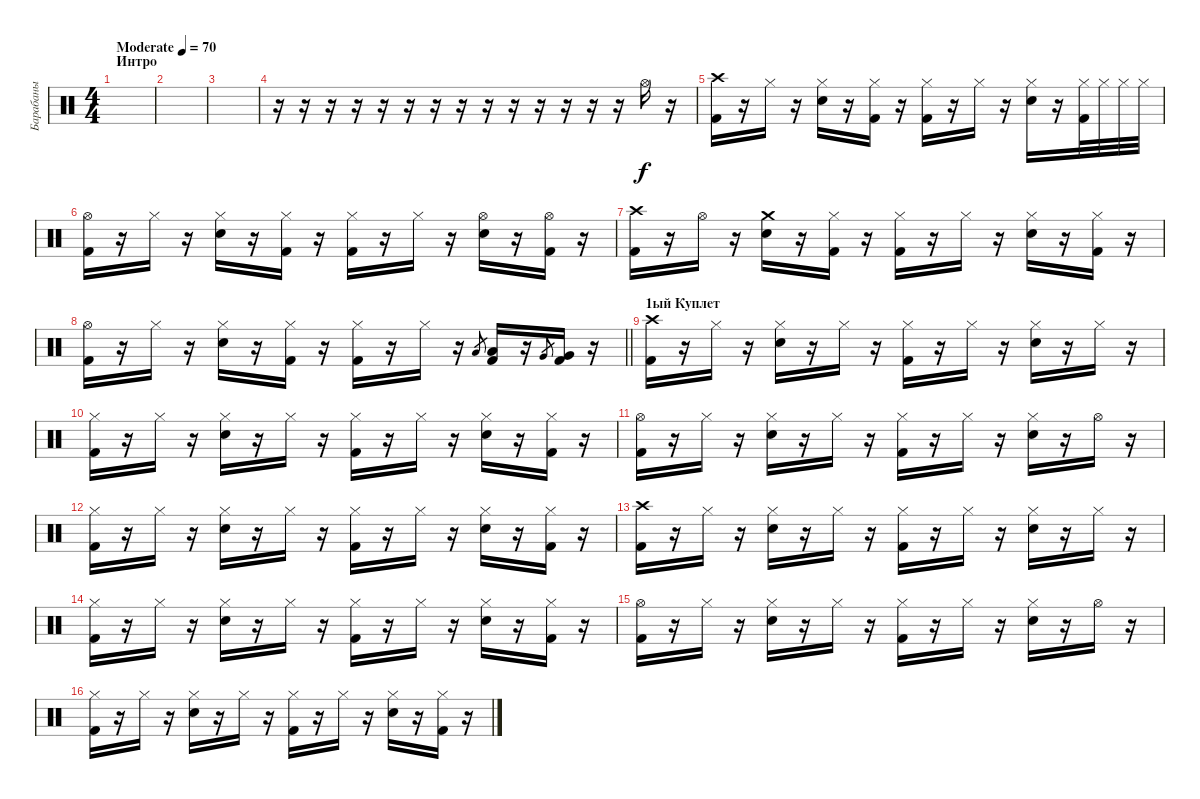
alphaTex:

\track ("Барабаны" "Барабаны") {instrument percussion}
\staff {score}
\articulation defaults
\ts (4 4)
\section ("" "Интро")
\tempo (70 "Moderate")
\clef neutral
\ks c
|
|
|
r.16 r.16 r.16 r.16 r.16 r.16 r.16 r.16 r.16 r.16 r.16 r.16 r.16 r.16 "Hi-Hat (open)".16 r.16 |
("Crash high (hit)" "Kick (hit) 2").16 r.16 "Hi-Hat (closed)".16 r.16 ("Hi-Hat (closed)" "Snare (hit) 2").16 r.16 ("Hi-Hat (closed)" "Kick (hit) 2").16 r.16 ("Hi-Hat (closed)" "Kick (hit) 2").16 r.16 "Hi-Hat (closed)".16 r.16 ("Hi-Hat (closed)" "Snare (hit) 2").16 r.16 ("Hi-Hat (closed)" "Kick (hit) 2").32 "Hi-Hat (closed)".32 "Hi-Hat (closed)".32 "Hi-Hat (closed)".32 |
("Hi-Hat (open)" "Kick (hit) 2").16 r.16 "Hi-Hat (closed)".16 r.16 ("Hi-Hat (closed)" "Snare (hit) 2").16 r.16 ("Hi-Hat (closed)" "Kick (hit) 2").16 r.16 ("Hi-Hat (closed)" "Kick (hit) 2").16 r.16 "Hi-Hat (closed)".16 r.16 ("Hi-Hat (open)" "Snare (hit) 2").16 r.16 ("Hi-Hat (open)" "Kick (hit) 2").16 r.16 |
("Crash high (hit)" "Kick (hit) 2").16 r.16 "Hi-Hat (open)".16 r.16 ("Crash medium (hit)" "Snare (hit) 2").16 r.16 ("Hi-Hat (closed)" "Kick (hit) 2").16 r.16 ("Hi-Hat (closed)" "Kick (hit) 2").16 r.16 "Hi-Hat (closed)".16 r.16 ("Hi-Hat (closed)" "Snare (hit) 2").16 r.16 ("Hi-Hat (closed)" "Kick (hit) 2").16 r.16 |
\barLineRight lightlight
("Hi-Hat (open)" "Kick (hit) 2").16 r.16 "Hi-Hat (closed)".16 r.16 ("Hi-Hat (closed)" "Snare (hit) 2").16 r.16 ("Hi-Hat (closed)" "Kick (hit) 2").16 r.16 ("Hi-Hat (closed)" "Kick (hit) 2").16 r.16 "Hi-Hat (closed)".16 r.16 "Low Tom (hit)".8{gr} ("Low Tom (hit)" "Kick (hit) 2").16 r.16 "Very Low Tom (hit)".8{gr} ("Very Low Tom (hit)" "Kick (hit) 2").16 r.16 |
\section ("" "1ый Куплет")
("Crash high (hit)" "Kick (hit) 2").16 r.16 "Hi-Hat (closed)".16 r.16 ("Hi-Hat (closed)" "Snare (hit) 2").16 r.16 "Hi-Hat (closed)".16 r.16 ("Hi-Hat (closed)" "Kick (hit) 2").16 r.16 "Hi-Hat (closed)".16 r.16 ("Hi-Hat (closed)" "Snare (hit) 2").16 r.16 "Hi-Hat (closed)".16 r.16 |
("Hi-Hat (closed)" "Kick (hit) 2").16 r.16 "Hi-Hat (closed)".16 r.16 ("Hi-Hat (closed)" "Snare (hit) 2").16 r.16 "Hi-Hat (closed)".16 r.16 ("Hi-Hat (closed)" "Kick (hit) 2").16 r.16 "Hi-Hat (closed)".16 r.16 ("Hi-Hat (closed)" "Snare (hit) 2").16 r.16 ("Hi-Hat (closed)" "Kick (hit) 2").16 r.16 |
("Hi-Hat (open)" "Kick (hit) 2").16 r.16 "Hi-Hat (closed)".16 r.16 ("Hi-Hat (closed)" "Snare (hit) 2").16 r.16 "Hi-Hat (closed)".16 r.16 ("Hi-Hat (closed)" "Kick (hit) 2").16 r.16 "Hi-Hat (closed)".16 r.16 ("Hi-Hat (closed)" "Snare (hit) 2").16 r.16 "Hi-Hat (open)".16 r.16 |
("Hi-Hat (closed)" "Kick (hit) 2").16 r.16 "Hi-Hat (closed)".16 r.16 ("Hi-Hat (closed)" "Snare (hit) 2").16 r.16 "Hi-Hat (closed)".16 r.16 ("Hi-Hat (closed)" "Kick (hit) 2").16 r.16 "Hi-Hat (closed)".16 r.16 ("Hi-Hat (closed)" "Snare (hit) 2").16 r.16 ("Hi-Hat (closed)" "Kick (hit) 2").16 r.16 |
("Crash high (hit)" "Kick (hit) 2").16 r.16 "Hi-Hat (closed)".16 r.16 ("Hi-Hat (closed)" "Snare (hit) 2").16 r.16 "Hi-Hat (closed)".16 r.16 ("Hi-Hat (closed)" "Kick (hit) 2").16 r.16 "Hi-Hat (closed)".16 r.16 ("Hi-Hat (closed)" "Snare (hit) 2").16 r.16 "Hi-Hat (closed)".16 r.16 |
("Hi-Hat (closed)" "Kick (hit) 2").16 r.16 "Hi-Hat (closed)".16 r.16 ("Hi-Hat (closed)" "Snare (hit) 2").16 r.16 "Hi-Hat (closed)".16 r.16 ("Hi-Hat (closed)" "Kick (hit) 2").16 r.16 "Hi-Hat (closed)".16 r.16 ("Hi-Hat (closed)" "Snare (hit) 2").16 r.16 ("Hi-Hat (closed)" "Kick (hit) 2").16 r.16 |
("Hi-Hat (open)" "Kick (hit) 2").16 r.16 "Hi-Hat (closed)".16 r.16 ("Hi-Hat (closed)" "Snare (hit) 2").16 r.16 "Hi-Hat (closed)".16 r.16 ("Hi-Hat (closed)" "Kick (hit) 2").16 r.16 "Hi-Hat (closed)".16 r.16 ("Hi-Hat (closed)" "Snare (hit) 2").16 r.16 "Hi-Hat (open)".16 r.16 |
("Hi-Hat (closed)" "Kick (hit) 2").16 r.16 "Hi-Hat (closed)".16 r.16 ("Hi-Hat (closed)" "Snare (hit) 2").16 r.16 "Hi-Hat (closed)".16 r.16 ("Hi-Hat (closed)" "Kick (hit) 2").16 r.16 "Hi-Hat (closed)".16 r.16 ("Hi-Hat (closed)" "Snare (hit) 2").16 r.16 ("Hi-Hat (closed)" "Kick (hit) 2").16 r.16
